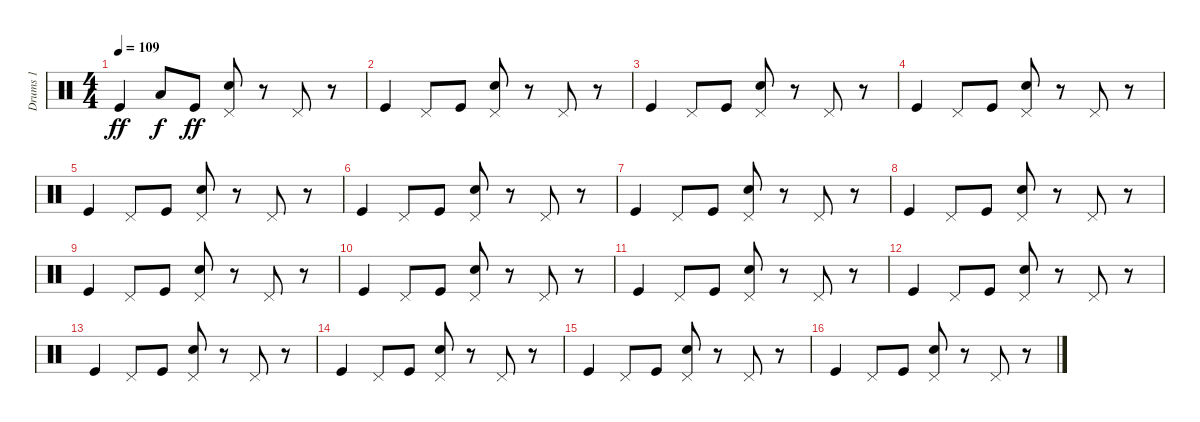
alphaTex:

\track ("Drums 1" "Drums 1") {instrument percussion}
\staff {score}
\articulation defaults
\ts (4 4)
\tempo 109
\clef neutral
\ks c "Kick (hit)".4{dy ff} "Low Tom (hit)".8{dy f} "Kick (hit)".8{dy ff}
("Electric Snare (hit)" "Pedal Hi-Hat (hit)").8 r.8 "Pedal Hi-Hat (hit)".8 r.8 |
"Kick (hit)".4 "Pedal Hi-Hat (hit)".8 "Kick (hit)".8 ("Electric Snare (hit)" "Pedal Hi-Hat (hit)").8 r.8 "Pedal Hi-Hat (hit)".8 r.8 |
"Kick (hit)".4 "Pedal Hi-Hat (hit)".8 "Kick (hit)".8 ("Electric Snare (hit)" "Pedal Hi-Hat (hit)").8 r.8 "Pedal Hi-Hat (hit)".8 r.8 |
"Kick (hit)".4 "Pedal Hi-Hat (hit)".8 "Kick (hit)".8 ("Electric Snare (hit)" "Pedal Hi-Hat (hit)").8 r.8 "Pedal Hi-Hat (hit)".8 r.8 |
"Kick (hit)".4 "Pedal Hi-Hat (hit)".8 "Kick (hit)".8 ("Electric Snare (hit)" "Pedal Hi-Hat (hit)").8 r.8 "Pedal Hi-Hat (hit)".8 r.8 |
"Kick (hit)".4 "Pedal Hi-Hat (hit)".8 "Kick (hit)".8 ("Electric Snare (hit)" "Pedal Hi-Hat (hit)").8 r.8 "Pedal Hi-Hat (hit)".8 r.8 |
"Kick (hit)".4 "Pedal Hi-Hat (hit)".8 "Kick (hit)".8 ("Electric Snare (hit)" "Pedal Hi-Hat (hit)").8 r.8 "Pedal Hi-Hat (hit)".8 r.8 |
"Kick (hit)".4 "Pedal Hi-Hat (hit)".8 "Kick (hit)".8 ("Electric Snare (hit)" "Pedal Hi-Hat (hit)").8 r.8 "Pedal Hi-Hat (hit)".8 r.8 |
"Kick (hit)".4 "Pedal Hi-Hat (hit)".8 "Kick (hit)".8 ("Electric Snare (hit)" "Pedal Hi-Hat (hit)").8 r.8 "Pedal Hi-Hat (hit)".8 r.8 |
"Kick (hit)".4 "Pedal Hi-Hat (hit)".8 "Kick (hit)".8 ("Electric Snare (hit)" "Pedal Hi-Hat (hit)").8 r.8 "Pedal Hi-Hat (hit)".8 r.8 |
"Kick (hit)".4 "Pedal Hi-Hat (hit)".8 "Kick (hit)".8 ("Electric Snare (hit)" "Pedal Hi-Hat (hit)").8 r.8 "Pedal Hi-Hat (hit)".8 r.8 |
"Kick (hit)".4 "Pedal Hi-Hat (hit)".8 "Kick (hit)".8 ("Electric Snare (hit)" "Pedal Hi-Hat (hit)").8 r.8 "Pedal Hi-Hat (hit)".8 r.8 |
"Kick (hit)".4 "Pedal Hi-Hat (hit)".8 "Kick (hit)".8 ("Electric Snare (hit)" "Pedal Hi-Hat (hit)").8 r.8 "Pedal Hi-Hat (hit)".8 r.8 |
"Kick (hit)".4 "Pedal Hi-Hat (hit)".8 "Kick (hit)".8 ("Electric Snare (hit)" "Pedal Hi-Hat (hit)").8 r.8 "Pedal Hi-Hat (hit)".8 r.8 |
"Kick (hit)".4 "Pedal Hi-Hat (hit)".8 "Kick (hit)".8 ("Electric Snare (hit)" "Pedal Hi-Hat (hit)").8 r.8 "Pedal Hi-Hat (hit)".8 r.8 |
"Kick (hit)".4 "Pedal Hi-Hat (hit)".8 "Kick (hit)".8 ("Electric Snare (hit)" "Pedal Hi-Hat (hit)").8 r.8 "Pedal Hi-Hat (hit)".8 r.8
